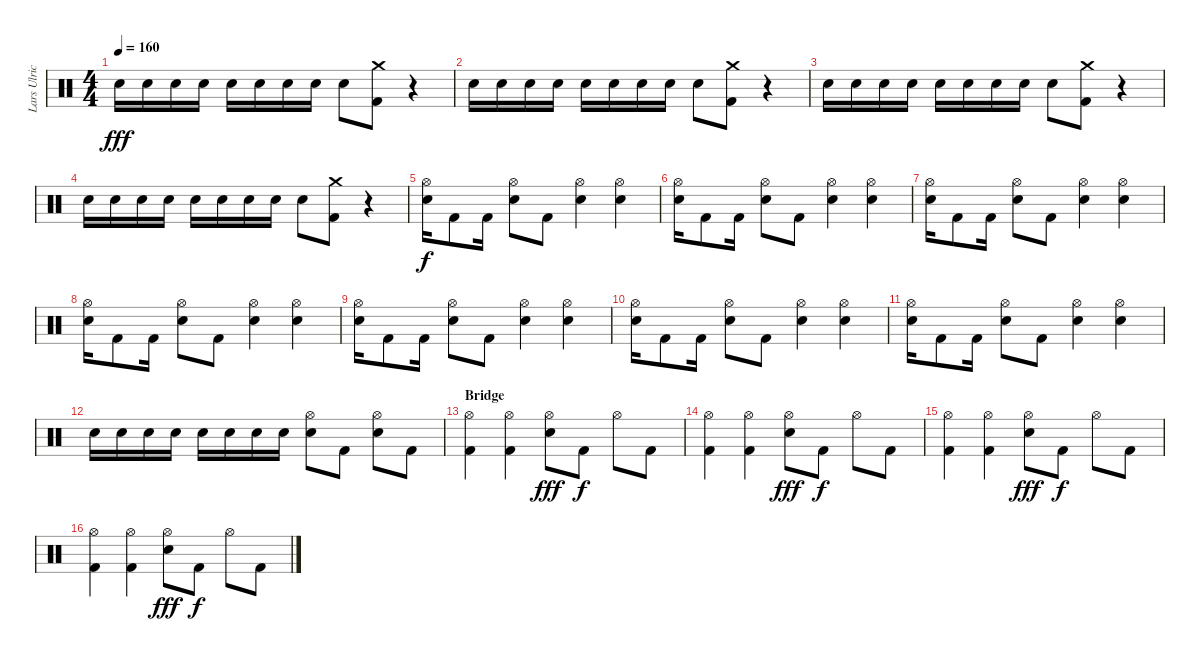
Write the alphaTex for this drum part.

\track ("Lars Ulrich" "Lars Ulric") {instrument percussion}
\staff {score}
\articulation defaults
\ts (4 4)
\tempo 160
\clef neutral
\ks c "Electric Snare (hit)".16{dy fff} "Electric Snare (hit)".16 "Electric Snare (hit)".16 "Electric Snare (hit)".16 "Electric Snare (hit)".16 "Electric Snare (hit)".16 "Electric Snare (hit)".16 "Electric Snare (hit)".16 "Electric Snare (hit)".8
("Crash medium (hit)" "Kick (hit) 2").8 r.4 |
"Electric Snare (hit)".16 "Electric Snare (hit)".16 "Electric Snare (hit)".16 "Electric Snare (hit)".16 "Electric Snare (hit)".16 "Electric Snare (hit)".16 "Electric Snare (hit)".16 "Electric Snare (hit)".16 "Electric Snare (hit)".8 ("Crash medium (hit)" "Kick (hit) 2").8 r.4 |
"Electric Snare (hit)".16 "Electric Snare (hit)".16 "Electric Snare (hit)".16 "Electric Snare (hit)".16 "Electric Snare (hit)".16 "Electric Snare (hit)".16 "Electric Snare (hit)".16 "Electric Snare (hit)".16 "Electric Snare (hit)".8 ("Crash medium (hit)" "Kick (hit) 2").8 r.4 |
"Electric Snare (hit)".16 "Electric Snare (hit)".16 "Electric Snare (hit)".16 "Electric Snare (hit)".16 "Electric Snare (hit)".16 "Electric Snare (hit)".16 "Electric Snare (hit)".16 "Electric Snare (hit)".16 "Electric Snare (hit)".8 ("Crash medium (hit)" "Kick (hit) 2").8 r.4 |
("Hi-Hat (open)" "Electric Snare (hit)").16{dy f} "Kick (hit) 2".8 "Kick (hit) 2".16 ("Hi-Hat (open)" "Electric Snare (hit)").8 "Kick (hit) 2".8 ("Hi-Hat (open)" "Electric Snare (hit)").4 ("Hi-Hat (open)" "Electric Snare (hit)").4 |
("Hi-Hat (open)" "Electric Snare (hit)").16 "Kick (hit) 2".8 "Kick (hit) 2".16 ("Hi-Hat (open)" "Electric Snare (hit)").8 "Kick (hit) 2".8 ("Hi-Hat (open)" "Electric Snare (hit)").4 ("Hi-Hat (open)" "Electric Snare (hit)").4 |
("Hi-Hat (open)" "Electric Snare (hit)").16 "Kick (hit) 2".8 "Kick (hit) 2".16 ("Hi-Hat (open)" "Electric Snare (hit)").8 "Kick (hit) 2".8 ("Hi-Hat (open)" "Electric Snare (hit)").4 ("Hi-Hat (open)" "Electric Snare (hit)").4 |
("Hi-Hat (open)" "Electric Snare (hit)").16 "Kick (hit) 2".8 "Kick (hit) 2".16 ("Hi-Hat (open)" "Electric Snare (hit)").8 "Kick (hit) 2".8 ("Hi-Hat (open)" "Electric Snare (hit)").4 ("Hi-Hat (open)" "Electric Snare (hit)").4 |
("Hi-Hat (open)" "Electric Snare (hit)").16 "Kick (hit) 2".8 "Kick (hit) 2".16 ("Hi-Hat (open)" "Electric Snare (hit)").8 "Kick (hit) 2".8 ("Hi-Hat (open)" "Electric Snare (hit)").4 ("Hi-Hat (open)" "Electric Snare (hit)").4 |
("Hi-Hat (open)" "Electric Snare (hit)").16 "Kick (hit) 2".8 "Kick (hit) 2".16 ("Hi-Hat (open)" "Electric Snare (hit)").8 "Kick (hit) 2".8 ("Hi-Hat (open)" "Electric Snare (hit)").4 ("Hi-Hat (open)" "Electric Snare (hit)").4 |
("Hi-Hat (open)" "Electric Snare (hit)").16 "Kick (hit) 2".8 "Kick (hit) 2".16 ("Hi-Hat (open)" "Electric Snare (hit)").8 "Kick (hit) 2".8 ("Hi-Hat (open)" "Electric Snare (hit)").4 ("Hi-Hat (open)" "Electric Snare (hit)").4 |
"Electric Snare (hit)".16 "Electric Snare (hit)".16 "Electric Snare (hit)".16 "Electric Snare (hit)".16 "Electric Snare (hit)".16 "Electric Snare (hit)".16 "Electric Snare (hit)".16 "Electric Snare (hit)".16 ("Hi-Hat (open)" "Electric Snare (hit)").8 "Kick (hit) 2".8 ("Hi-Hat (open)" "Electric Snare (hit)").8 "Kick (hit) 2".8 |
\section ("" "Bridge")
("Hi-Hat (open)" "Kick (hit) 2").4 ("Hi-Hat (open)" "Kick (hit) 2").4 ("Hi-Hat (open)" "Electric Snare (hit)").8{dy fff} "Kick (hit) 2".8{dy f} "Hi-Hat (open)".8 "Kick (hit) 2".8 |
("Hi-Hat (open)" "Kick (hit) 2").4 ("Hi-Hat (open)" "Kick (hit) 2").4 ("Hi-Hat (open)" "Electric Snare (hit)").8{dy fff} "Kick (hit) 2".8{dy f} "Hi-Hat (open)".8 "Kick (hit) 2".8 |
("Hi-Hat (open)" "Kick (hit) 2").4 ("Hi-Hat (open)" "Kick (hit) 2").4 ("Hi-Hat (open)" "Electric Snare (hit)").8{dy fff} "Kick (hit) 2".8{dy f} "Hi-Hat (open)".8 "Kick (hit) 2".8 |
("Hi-Hat (open)" "Kick (hit) 2").4 ("Hi-Hat (open)" "Kick (hit) 2").4 ("Hi-Hat (open)" "Electric Snare (hit)").8{dy fff} "Kick (hit) 2".8{dy f} "Hi-Hat (open)".8 "Kick (hit) 2".8
